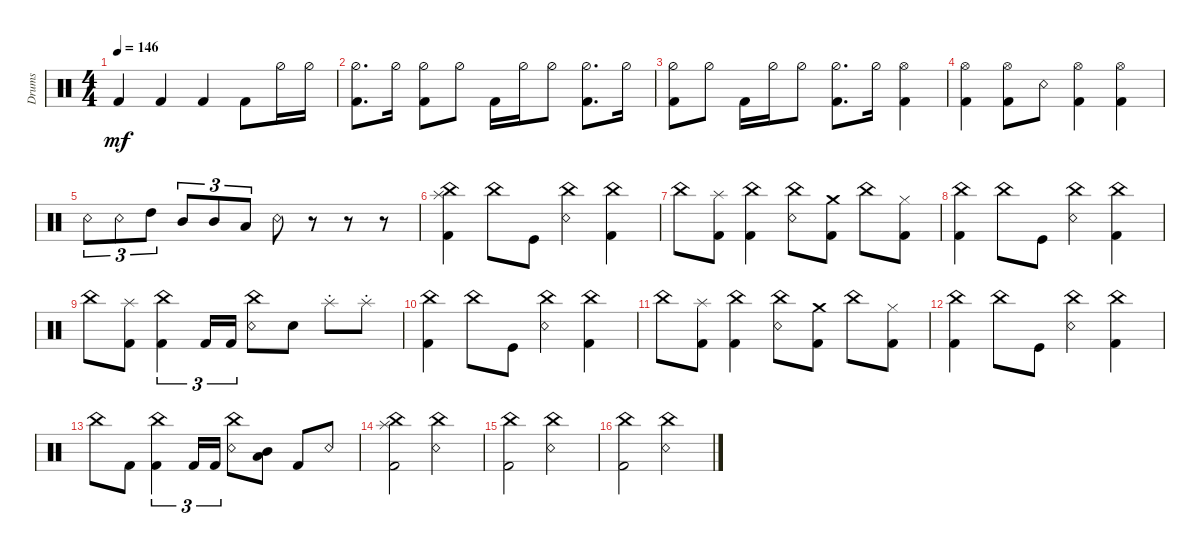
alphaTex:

\track ("Drums" "Drums") {instrument percussion}
\staff {score}
\articulation defaults
\ts (4 4)
\tempo 146
\clef neutral
\ks c "Kick (hit) 2".4{dy mf} "Kick (hit) 2".4 "Kick (hit) 2".4 "Kick (hit) 2".8 "Hi-Hat (half)".16 "Hi-Hat (half)".16
|
("Hi-Hat (half)" "Kick (hit) 2").8{d} "Hi-Hat (half)".16 ("Hi-Hat (half)" "Kick (hit) 2").8 "Hi-Hat (half)".8 "Kick (hit) 2".16 "Hi-Hat (half)".16 "Hi-Hat (half)".8 ("Hi-Hat (half)" "Kick (hit) 2").8{d} "Hi-Hat (half)".16 |
("Hi-Hat (half)" "Kick (hit) 2").8 "Hi-Hat (half)".8 "Kick (hit) 2".16 "Hi-Hat (half)".16 "Hi-Hat (half)".8 ("Hi-Hat (half)" "Kick (hit) 2").8{d} "Hi-Hat (half)".16 ("Hi-Hat (open)" "Kick (hit) 2").4 |
("Hi-Hat (open)" "Kick (hit) 2").4 ("Hi-Hat (open)" "Kick (hit) 2").8 "Snare (rim shot)".8 ("Hi-Hat (open)" "Kick (hit) 2").4 ("Hi-Hat (open)" "Kick (hit) 2").4 |
"Snare (rim shot)".8{tu (3 2)} "Snare (rim shot)".8{tu (3 2)} "High Tom (hit)".8{tu (3 2)} "Mid Tom (hit)".8{tu (3 2)} "Mid Tom (hit)".8{tu (3 2)} "Low Tom (hit)".8{tu (3 2)} "Snare (rim shot)".8 r.8 r.8 r.8 |
("Splash (hit)" "China (hit)" "Kick (hit) 2").4 "China (hit)".8 "Kick (hit)".8 ("China (hit)" "Snare (rim shot)").4 ("China (hit)" "Kick (hit) 2").4 |
"China (hit)".8 ("Splash (hit)" "Kick (hit) 2").8 ("China (hit)" "Kick (hit) 2").4 ("China (hit)" "Snare (rim shot)").8 ("Crash medium (hit)" "Kick (hit) 2").8 "China (hit)".8 ("Hi-Hat (closed)" "Kick (hit) 2").8 |
("China (hit)" "Kick (hit) 2").4 "China (hit)".8 "Kick (hit)".8 ("China (hit)" "Snare (rim shot)").4 ("China (hit)" "Kick (hit) 2").4 |
"China (hit)".8 ("Splash (hit)" "Kick (hit) 2").8 ("China (hit)" "Kick (hit) 2").4{tu (3 2)} "Kick (hit) 2".16{tu (3 2)} "Kick (hit) 2".16{tu (3 2)} ("China (hit)" "Snare (rim shot)").8 "Snare (hit) 2".8 "Splash (choke)".8 "Splash (choke)".8 |
("China (hit)" "Kick (hit) 2").4 "China (hit)".8 "Kick (hit)".8 ("China (hit)" "Snare (rim shot)").4 ("China (hit)" "Kick (hit) 2").4 |
"China (hit)".8 ("Splash (hit)" "Kick (hit) 2").8 ("China (hit)" "Kick (hit) 2").4 ("China (hit)" "Snare (rim shot)").8 ("Crash medium (hit)" "Kick (hit) 2").8 "China (hit)".8 ("Hi-Hat (closed)" "Kick (hit) 2").8 |
("China (hit)" "Kick (hit) 2").4 "China (hit)".8 "Kick (hit)".8 ("China (hit)" "Snare (rim shot)").4 ("China (hit)" "Kick (hit) 2").4 |
"China (hit)".8 "Kick (hit) 2".8 ("China (hit)" "Kick (hit) 2").4{tu (3 2)} "Kick (hit) 2".16{tu (3 2)} "Kick (hit) 2".16{tu (3 2)} ("China (hit)" "Snare (rim shot)").8 ("Mid Tom (hit)" "Low Tom (hit)").8 "Kick (hit) 2".8 "Snare (rim shot)".8 |
("Splash (hit)" "China (hit)" "Kick (hit) 2").2 ("China (hit)" "Snare (rim shot)").2 |
("China (hit)" "Kick (hit) 2").2 ("China (hit)" "Snare (rim shot)").2 |
("China (hit)" "Kick (hit) 2").2 ("China (hit)" "Snare (rim shot)").2
